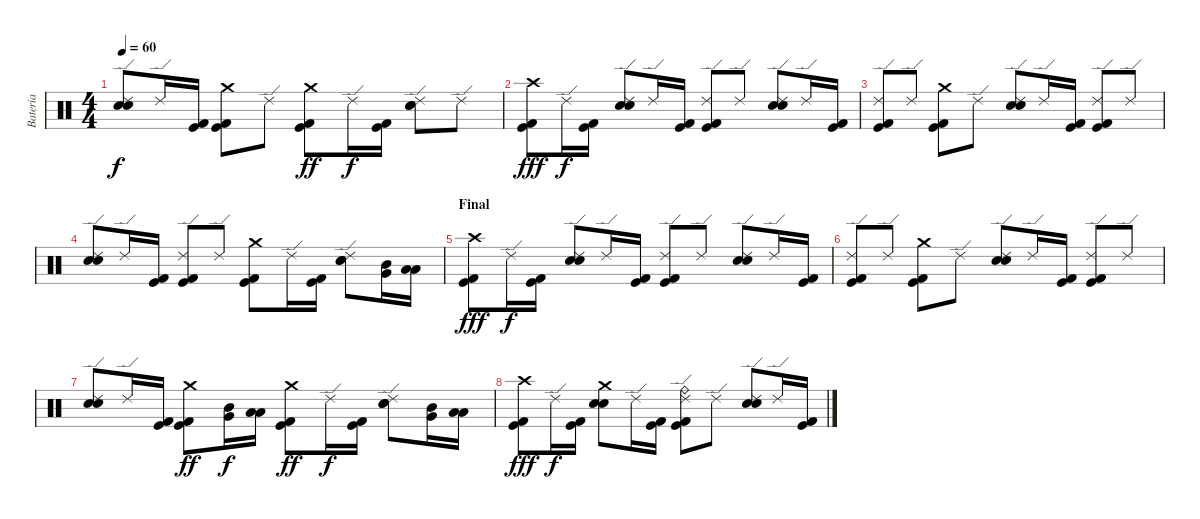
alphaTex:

\track ("Bateria" "Bateria") {instrument percussion}
\staff {score}
\articulation defaults
\ts (4 4)
\tempo 60
\clef neutral
\ks c
("Ride (edge) 2" "Electric Snare (hit)" "Snare (hit) 2").8{dy f} "Ride (edge) 2".16 ("Kick (hit) 2" "Kick (hit)").16 ("Crash medium (hit)" "Kick (hit) 2" "Kick (hit)").8 "Ride (edge) 2".8 ("Crash medium (hit)" "Kick (hit) 2" "Kick (hit)").8{dy ff} "Ride (edge) 2".16{dy f} ("Kick (hit) 2" "Kick (hit)").16 ("Ride (edge) 2" "Electric Snare (hit)" "Snare (hit) 2").8 "Ride (edge) 2".8 |
("Crash high (hit)" "Kick (hit) 2" "Kick (hit)").8{dy fff} "Ride (edge) 2".16{dy f} ("Kick (hit) 2" "Kick (hit)").16 ("Ride (edge) 2" "Electric Snare (hit)" "Snare (hit) 2").8 "Ride (edge) 2".16 ("Kick (hit) 2" "Kick (hit)").16 ("Ride (edge) 2" "Kick (hit) 2" "Kick (hit)").8 "Ride (edge) 2".8 ("Ride (edge) 2" "Electric Snare (hit)" "Snare (hit) 2").8 "Ride (edge) 2".16 ("Kick (hit) 2" "Kick (hit)").16 |
("Ride (edge) 2" "Kick (hit) 2" "Kick (hit)").8 "Ride (edge) 2".8 ("Crash medium (hit)" "Kick (hit) 2" "Kick (hit)").8 "Ride (edge) 2".8 ("Ride (edge) 2" "Electric Snare (hit)" "Snare (hit) 2").8 "Ride (edge) 2".16 ("Kick (hit) 2" "Kick (hit)").16 ("Ride (edge) 2" "Kick (hit) 2" "Kick (hit)").8 "Ride (edge) 2".8 |
("Ride (edge) 2" "Electric Snare (hit)" "Snare (hit) 2").8 "Ride (edge) 2".16 ("Kick (hit) 2" "Kick (hit)").16 ("Ride (edge) 2" "Kick (hit) 2" "Kick (hit)").8 "Ride (edge) 2".8 ("Crash medium (hit)" "Kick (hit) 2" "Kick (hit)").8 "Ride (edge) 2".16 ("Kick (hit) 2" "Kick (hit)").16 ("Ride (edge) 2" "Electric Snare (hit)" "Snare (hit) 2").8 ("Mid Tom (hit)" "Very Low Tom (hit)").16 ("Low Tom (hit)" "Low Floor Tom (hit)").16 |
\section ("" "Final")
("Crash high (hit)" "Kick (hit) 2" "Kick (hit)").8{dy fff} "Ride (edge) 2".16{dy f} ("Kick (hit) 2" "Kick (hit)").16 ("Ride (edge) 2" "Electric Snare (hit)" "Snare (hit) 2").8 "Ride (edge) 2".16 ("Kick (hit) 2" "Kick (hit)").16 ("Ride (edge) 2" "Kick (hit) 2" "Kick (hit)").8 "Ride (edge) 2".8 ("Ride (edge) 2" "Electric Snare (hit)" "Snare (hit) 2").8 "Ride (edge) 2".16 ("Kick (hit) 2" "Kick (hit)").16 |
("Ride (edge) 2" "Kick (hit) 2" "Kick (hit)").8 "Ride (edge) 2".8 ("Crash medium (hit)" "Kick (hit) 2" "Kick (hit)").8 "Ride (edge) 2".8 ("Ride (edge) 2" "Electric Snare (hit)" "Snare (hit) 2").8 "Ride (edge) 2".16 ("Kick (hit) 2" "Kick (hit)").16 ("Ride (edge) 2" "Kick (hit) 2" "Kick (hit)").8 "Ride (edge) 2".8 |
("Ride (edge) 2" "Electric Snare (hit)" "Snare (hit) 2").8 "Ride (edge) 2".16 ("Kick (hit) 2" "Kick (hit)").16 ("Crash medium (hit)" "Kick (hit) 2" "Kick (hit)").8{dy ff} ("Mid Tom (hit)" "Very Low Tom (hit)").16{dy f} ("Low Tom (hit)" "Low Floor Tom (hit)").16 ("Crash medium (hit)" "Kick (hit) 2" "Kick (hit)").8{dy ff} "Ride (edge) 2".16{dy f} ("Kick (hit) 2" "Kick (hit)").16 ("Ride (edge) 2" "Electric Snare (hit)" "Snare (hit) 2").8 ("Mid Tom (hit)" "Very Low Tom (hit)").16 ("Low Tom (hit)" "Low Floor Tom (hit)").16 |
("Crash high (hit)" "Kick (hit) 2" "Kick (hit)").8{dy fff} "Ride (edge) 2".16{dy f} ("Kick (hit) 2" "Kick (hit)").16 ("Crash medium (hit)" "Electric Snare (hit)" "Snare (hit) 2").8 "Ride (edge) 2".16 ("Kick (hit) 2" "Kick (hit)").16 ("Ride (bell)" "Ride (edge) 2" "Kick (hit) 2" "Kick (hit)").8 "Ride (edge) 2".8 ("Ride (edge) 2" "Electric Snare (hit)" "Snare (hit) 2").8 "Ride (edge) 2".16 ("Kick (hit) 2" "Kick (hit)").16
